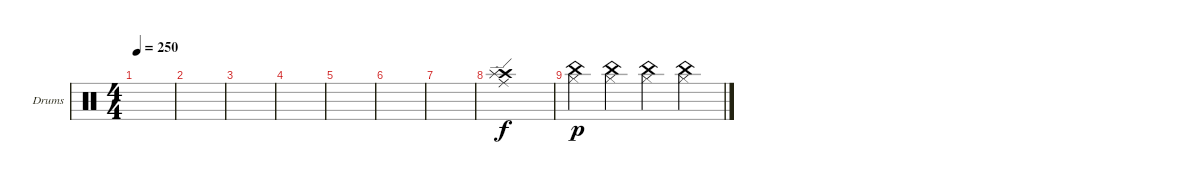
\defaultSystemsLayout 4
\bracketExtendMode groupsimilarinstruments
\firstSystemTrackNameOrientation horizontal
\otherSystemsTrackNameOrientation horizontal
\track ("Драмки2" "Drums") {instrument percussion}
\staff {score}
\articulation defaults
\ts (4 4)
\tempo 250
\clef neutral
\ks c
|
|
|
|
|
|
|
("Crash high (hit)" "Splash (hit)" "Ride (edge)").1 |
("Hi-Hat (closed)" "China (hit)").4{dy p} ("Hi-Hat (closed)" "China (hit)").4 ("Hi-Hat (closed)" "China (hit)").4 ("Hi-Hat (closed)" "China (hit)").4
